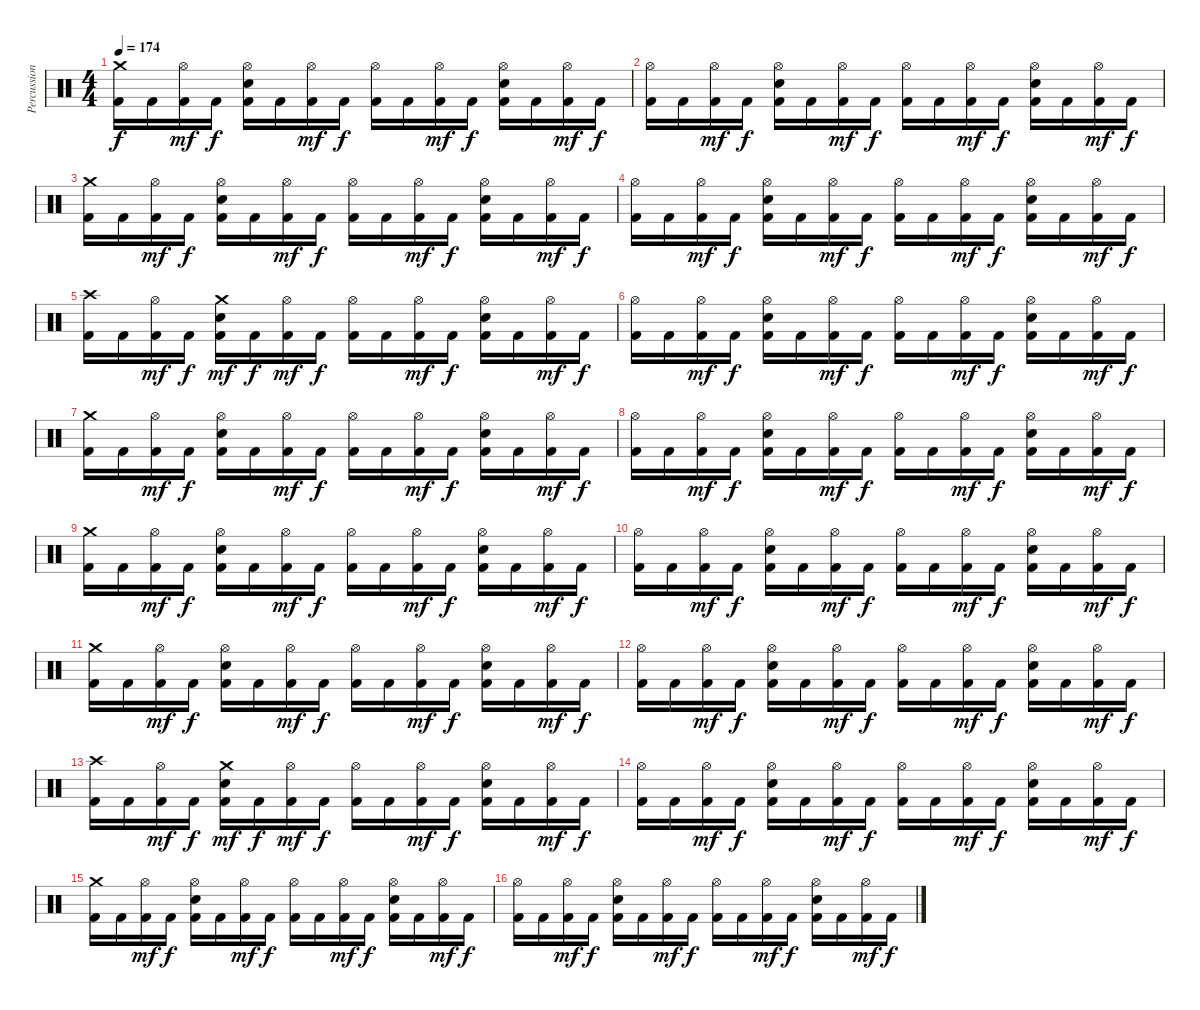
\track ("Percussion" "Percussion") {instrument percussion}
\staff {score}
\articulation defaults
\ts (4 4)
\tempo 174
\clef neutral
\ks c
("Crash medium (hit)" "Kick (hit) 2").16{dy f} "Kick (hit) 2".16 ("Hi-Hat (open)" "Kick (hit) 2").16{dy mf} "Kick (hit) 2".16{dy f} ("Hi-Hat (open)" "Electric Snare (hit)" "Kick (hit) 2").16 "Kick (hit) 2".16 ("Hi-Hat (open)" "Kick (hit) 2").16{dy mf} "Kick (hit) 2".16{dy f} ("Hi-Hat (open)" "Kick (hit) 2").16 "Kick (hit) 2".16 ("Hi-Hat (open)" "Kick (hit) 2").16{dy mf} "Kick (hit) 2".16{dy f} ("Hi-Hat (open)" "Electric Snare (hit)" "Kick (hit) 2").16 "Kick (hit) 2".16 ("Hi-Hat (open)" "Kick (hit) 2").16{dy mf} "Kick (hit) 2".16{dy f} |
("Hi-Hat (open)" "Kick (hit) 2").16 "Kick (hit) 2".16 ("Hi-Hat (open)" "Kick (hit) 2").16{dy mf} "Kick (hit) 2".16{dy f} ("Hi-Hat (open)" "Electric Snare (hit)" "Kick (hit) 2").16 "Kick (hit) 2".16 ("Hi-Hat (open)" "Kick (hit) 2").16{dy mf} "Kick (hit) 2".16{dy f} ("Hi-Hat (open)" "Kick (hit) 2").16 "Kick (hit) 2".16 ("Hi-Hat (open)" "Kick (hit) 2").16{dy mf} "Kick (hit) 2".16{dy f} ("Hi-Hat (open)" "Electric Snare (hit)" "Kick (hit) 2").16 "Kick (hit) 2".16 ("Hi-Hat (open)" "Kick (hit) 2").16{dy mf} "Kick (hit) 2".16{dy f} |
("Crash medium (hit)" "Kick (hit) 2").16 "Kick (hit) 2".16 ("Hi-Hat (open)" "Kick (hit) 2").16{dy mf} "Kick (hit) 2".16{dy f} ("Hi-Hat (open)" "Electric Snare (hit)" "Kick (hit) 2").16 "Kick (hit) 2".16 ("Hi-Hat (open)" "Kick (hit) 2").16{dy mf} "Kick (hit) 2".16{dy f} ("Hi-Hat (open)" "Kick (hit) 2").16 "Kick (hit) 2".16 ("Hi-Hat (open)" "Kick (hit) 2").16{dy mf} "Kick (hit) 2".16{dy f} ("Hi-Hat (open)" "Electric Snare (hit)" "Kick (hit) 2").16 "Kick (hit) 2".16 ("Hi-Hat (open)" "Kick (hit) 2").16{dy mf} "Kick (hit) 2".16{dy f} |
("Hi-Hat (open)" "Kick (hit) 2").16 "Kick (hit) 2".16 ("Hi-Hat (open)" "Kick (hit) 2").16{dy mf} "Kick (hit) 2".16{dy f} ("Hi-Hat (open)" "Electric Snare (hit)" "Kick (hit) 2").16 "Kick (hit) 2".16 ("Hi-Hat (open)" "Kick (hit) 2").16{dy mf} "Kick (hit) 2".16{dy f} ("Hi-Hat (open)" "Kick (hit) 2").16 "Kick (hit) 2".16 ("Hi-Hat (open)" "Kick (hit) 2").16{dy mf} "Kick (hit) 2".16{dy f} ("Hi-Hat (open)" "Electric Snare (hit)" "Kick (hit) 2").16 "Kick (hit) 2".16 ("Hi-Hat (open)" "Kick (hit) 2").16{dy mf} "Kick (hit) 2".16{dy f} |
("Crash high (hit)" "Kick (hit) 2").16 "Kick (hit) 2".16 ("Hi-Hat (open)" "Kick (hit) 2").16{dy mf} "Kick (hit) 2".16{dy f} ("Crash medium (hit)" "Electric Snare (hit)" "Kick (hit) 2").16{dy mf} "Kick (hit) 2".16{dy f} ("Hi-Hat (open)" "Kick (hit) 2").16{dy mf} "Kick (hit) 2".16{dy f} ("Hi-Hat (open)" "Kick (hit) 2").16 "Kick (hit) 2".16 ("Hi-Hat (open)" "Kick (hit) 2").16{dy mf} "Kick (hit) 2".16{dy f} ("Hi-Hat (open)" "Electric Snare (hit)" "Kick (hit) 2").16 "Kick (hit) 2".16 ("Hi-Hat (open)" "Kick (hit) 2").16{dy mf} "Kick (hit) 2".16{dy f} |
("Hi-Hat (open)" "Kick (hit) 2").16 "Kick (hit) 2".16 ("Hi-Hat (open)" "Kick (hit) 2").16{dy mf} "Kick (hit) 2".16{dy f} ("Hi-Hat (open)" "Electric Snare (hit)" "Kick (hit) 2").16 "Kick (hit) 2".16 ("Hi-Hat (open)" "Kick (hit) 2").16{dy mf} "Kick (hit) 2".16{dy f} ("Hi-Hat (open)" "Kick (hit) 2").16 "Kick (hit) 2".16 ("Hi-Hat (open)" "Kick (hit) 2").16{dy mf} "Kick (hit) 2".16{dy f} ("Hi-Hat (open)" "Electric Snare (hit)" "Kick (hit) 2").16 "Kick (hit) 2".16 ("Hi-Hat (open)" "Kick (hit) 2").16{dy mf} "Kick (hit) 2".16{dy f} |
("Crash medium (hit)" "Kick (hit) 2").16 "Kick (hit) 2".16 ("Hi-Hat (open)" "Kick (hit) 2").16{dy mf} "Kick (hit) 2".16{dy f} ("Hi-Hat (open)" "Electric Snare (hit)" "Kick (hit) 2").16 "Kick (hit) 2".16 ("Hi-Hat (open)" "Kick (hit) 2").16{dy mf} "Kick (hit) 2".16{dy f} ("Hi-Hat (open)" "Kick (hit) 2").16 "Kick (hit) 2".16 ("Hi-Hat (open)" "Kick (hit) 2").16{dy mf} "Kick (hit) 2".16{dy f} ("Hi-Hat (open)" "Electric Snare (hit)" "Kick (hit) 2").16 "Kick (hit) 2".16 ("Hi-Hat (open)" "Kick (hit) 2").16{dy mf} "Kick (hit) 2".16{dy f} |
("Hi-Hat (open)" "Kick (hit) 2").16 "Kick (hit) 2".16 ("Hi-Hat (open)" "Kick (hit) 2").16{dy mf} "Kick (hit) 2".16{dy f} ("Hi-Hat (open)" "Electric Snare (hit)" "Kick (hit) 2").16 "Kick (hit) 2".16 ("Hi-Hat (open)" "Kick (hit) 2").16{dy mf} "Kick (hit) 2".16{dy f} ("Hi-Hat (open)" "Kick (hit) 2").16 "Kick (hit) 2".16 ("Hi-Hat (open)" "Kick (hit) 2").16{dy mf} "Kick (hit) 2".16{dy f} ("Hi-Hat (open)" "Electric Snare (hit)" "Kick (hit) 2").16 "Kick (hit) 2".16 ("Hi-Hat (open)" "Kick (hit) 2").16{dy mf} "Kick (hit) 2".16{dy f} |
("Crash medium (hit)" "Kick (hit) 2").16 "Kick (hit) 2".16 ("Hi-Hat (open)" "Kick (hit) 2").16{dy mf} "Kick (hit) 2".16{dy f} ("Hi-Hat (open)" "Electric Snare (hit)" "Kick (hit) 2").16 "Kick (hit) 2".16 ("Hi-Hat (open)" "Kick (hit) 2").16{dy mf} "Kick (hit) 2".16{dy f} ("Hi-Hat (open)" "Kick (hit) 2").16 "Kick (hit) 2".16 ("Hi-Hat (open)" "Kick (hit) 2").16{dy mf} "Kick (hit) 2".16{dy f} ("Hi-Hat (open)" "Electric Snare (hit)" "Kick (hit) 2").16 "Kick (hit) 2".16 ("Hi-Hat (open)" "Kick (hit) 2").16{dy mf} "Kick (hit) 2".16{dy f} |
("Hi-Hat (open)" "Kick (hit) 2").16 "Kick (hit) 2".16 ("Hi-Hat (open)" "Kick (hit) 2").16{dy mf} "Kick (hit) 2".16{dy f} ("Hi-Hat (open)" "Electric Snare (hit)" "Kick (hit) 2").16 "Kick (hit) 2".16 ("Hi-Hat (open)" "Kick (hit) 2").16{dy mf} "Kick (hit) 2".16{dy f} ("Hi-Hat (open)" "Kick (hit) 2").16 "Kick (hit) 2".16 ("Hi-Hat (open)" "Kick (hit) 2").16{dy mf} "Kick (hit) 2".16{dy f} ("Hi-Hat (open)" "Electric Snare (hit)" "Kick (hit) 2").16 "Kick (hit) 2".16 ("Hi-Hat (open)" "Kick (hit) 2").16{dy mf} "Kick (hit) 2".16{dy f} |
("Crash medium (hit)" "Kick (hit) 2").16 "Kick (hit) 2".16 ("Hi-Hat (open)" "Kick (hit) 2").16{dy mf} "Kick (hit) 2".16{dy f} ("Hi-Hat (open)" "Electric Snare (hit)" "Kick (hit) 2").16 "Kick (hit) 2".16 ("Hi-Hat (open)" "Kick (hit) 2").16{dy mf} "Kick (hit) 2".16{dy f} ("Hi-Hat (open)" "Kick (hit) 2").16 "Kick (hit) 2".16 ("Hi-Hat (open)" "Kick (hit) 2").16{dy mf} "Kick (hit) 2".16{dy f} ("Hi-Hat (open)" "Electric Snare (hit)" "Kick (hit) 2").16 "Kick (hit) 2".16 ("Hi-Hat (open)" "Kick (hit) 2").16{dy mf} "Kick (hit) 2".16{dy f} |
("Hi-Hat (open)" "Kick (hit) 2").16 "Kick (hit) 2".16 ("Hi-Hat (open)" "Kick (hit) 2").16{dy mf} "Kick (hit) 2".16{dy f} ("Hi-Hat (open)" "Electric Snare (hit)" "Kick (hit) 2").16 "Kick (hit) 2".16 ("Hi-Hat (open)" "Kick (hit) 2").16{dy mf} "Kick (hit) 2".16{dy f} ("Hi-Hat (open)" "Kick (hit) 2").16 "Kick (hit) 2".16 ("Hi-Hat (open)" "Kick (hit) 2").16{dy mf} "Kick (hit) 2".16{dy f} ("Hi-Hat (open)" "Electric Snare (hit)" "Kick (hit) 2").16 "Kick (hit) 2".16 ("Hi-Hat (open)" "Kick (hit) 2").16{dy mf} "Kick (hit) 2".16{dy f} |
("Crash high (hit)" "Kick (hit) 2").16 "Kick (hit) 2".16 ("Hi-Hat (open)" "Kick (hit) 2").16{dy mf} "Kick (hit) 2".16{dy f} ("Crash medium (hit)" "Electric Snare (hit)" "Kick (hit) 2").16{dy mf} "Kick (hit) 2".16{dy f} ("Hi-Hat (open)" "Kick (hit) 2").16{dy mf} "Kick (hit) 2".16{dy f} ("Hi-Hat (open)" "Kick (hit) 2").16 "Kick (hit) 2".16 ("Hi-Hat (open)" "Kick (hit) 2").16{dy mf} "Kick (hit) 2".16{dy f} ("Hi-Hat (open)" "Electric Snare (hit)" "Kick (hit) 2").16 "Kick (hit) 2".16 ("Hi-Hat (open)" "Kick (hit) 2").16{dy mf} "Kick (hit) 2".16{dy f} |
("Hi-Hat (open)" "Kick (hit) 2").16 "Kick (hit) 2".16 ("Hi-Hat (open)" "Kick (hit) 2").16{dy mf} "Kick (hit) 2".16{dy f} ("Hi-Hat (open)" "Electric Snare (hit)" "Kick (hit) 2").16 "Kick (hit) 2".16 ("Hi-Hat (open)" "Kick (hit) 2").16{dy mf} "Kick (hit) 2".16{dy f} ("Hi-Hat (open)" "Kick (hit) 2").16 "Kick (hit) 2".16 ("Hi-Hat (open)" "Kick (hit) 2").16{dy mf} "Kick (hit) 2".16{dy f} ("Hi-Hat (open)" "Electric Snare (hit)" "Kick (hit) 2").16 "Kick (hit) 2".16 ("Hi-Hat (open)" "Kick (hit) 2").16{dy mf} "Kick (hit) 2".16{dy f} |
("Crash medium (hit)" "Kick (hit) 2").16 "Kick (hit) 2".16 ("Hi-Hat (open)" "Kick (hit) 2").16{dy mf} "Kick (hit) 2".16{dy f} ("Hi-Hat (open)" "Electric Snare (hit)" "Kick (hit) 2").16 "Kick (hit) 2".16 ("Hi-Hat (open)" "Kick (hit) 2").16{dy mf} "Kick (hit) 2".16{dy f} ("Hi-Hat (open)" "Kick (hit) 2").16 "Kick (hit) 2".16 ("Hi-Hat (open)" "Kick (hit) 2").16{dy mf} "Kick (hit) 2".16{dy f} ("Hi-Hat (open)" "Electric Snare (hit)" "Kick (hit) 2").16 "Kick (hit) 2".16 ("Hi-Hat (open)" "Kick (hit) 2").16{dy mf} "Kick (hit) 2".16{dy f} |
("Hi-Hat (open)" "Kick (hit) 2").16 "Kick (hit) 2".16 ("Hi-Hat (open)" "Kick (hit) 2").16{dy mf} "Kick (hit) 2".16{dy f} ("Hi-Hat (open)" "Electric Snare (hit)" "Kick (hit) 2").16 "Kick (hit) 2".16 ("Hi-Hat (open)" "Kick (hit) 2").16{dy mf} "Kick (hit) 2".16{dy f} ("Hi-Hat (open)" "Kick (hit) 2").16 "Kick (hit) 2".16 ("Hi-Hat (open)" "Kick (hit) 2").16{dy mf} "Kick (hit) 2".16{dy f} ("Hi-Hat (open)" "Electric Snare (hit)" "Kick (hit) 2").16 "Kick (hit) 2".16 ("Hi-Hat (open)" "Kick (hit) 2").16{dy mf} "Kick (hit) 2".16{dy f}
